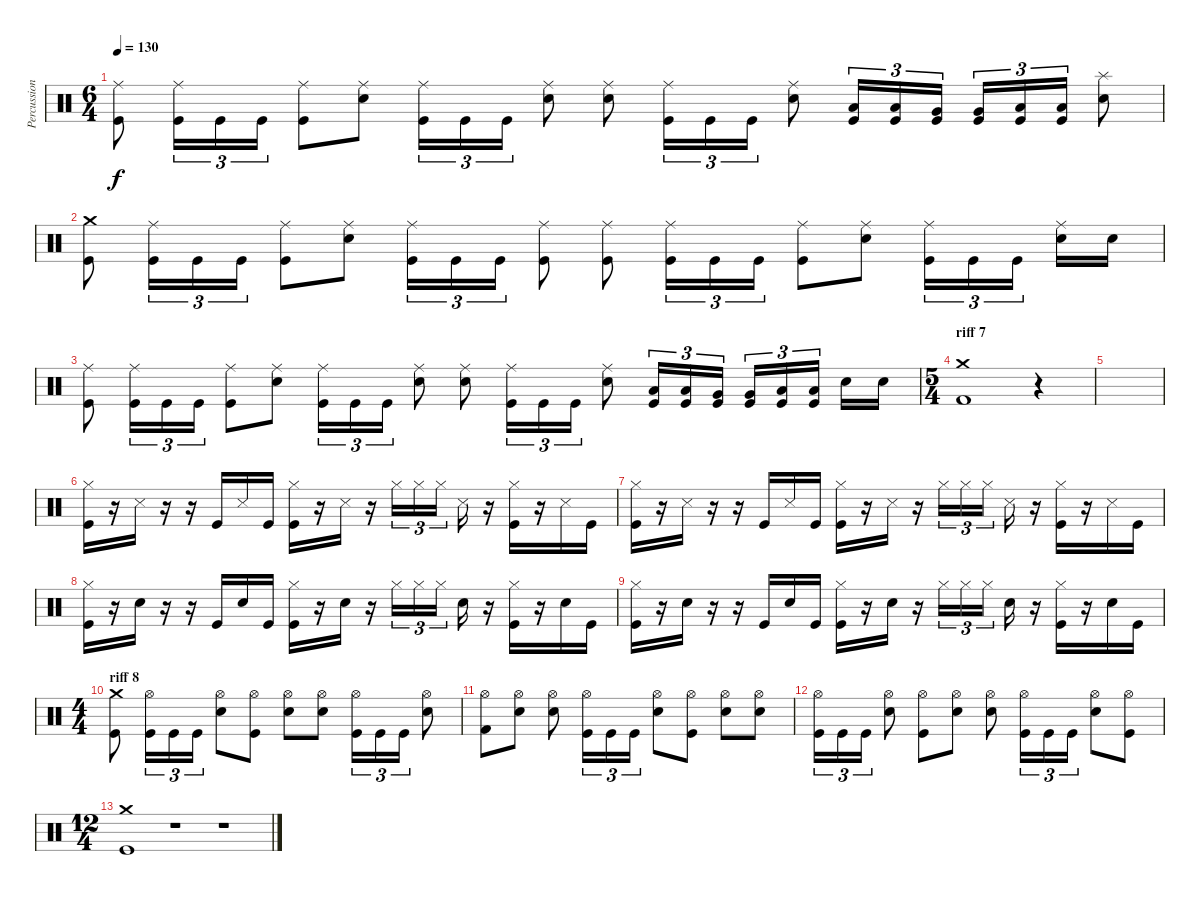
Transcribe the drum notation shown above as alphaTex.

\track ("Percussion" "Percussion") {instrument percussion}
\staff {score}
\articulation defaults
\ts (6 4)
\tempo 130
\clef neutral
\ks c
("Kick (hit)" "Ride (middle)").8{dy f} ("Kick (hit)" "Ride (middle)").16{tu (3 2)} "Kick (hit)".16{tu (3 2)} "Kick (hit)".16{tu (3 2)} ("Kick (hit)" "Ride (middle)").8 ("Ride (middle)" "Electric Snare (hit)").8 ("Kick (hit)" "Ride (middle)").16{tu (3 2)} "Kick (hit)".16{tu (3 2)} "Kick (hit)".16{tu (3 2)} ("Ride (middle)" "Electric Snare (hit)").8 ("Ride (middle)" "Electric Snare (hit)").8 ("Kick (hit)" "Ride (middle)").16{tu (3 2)} "Kick (hit)".16{tu (3 2)} "Kick (hit)".16{tu (3 2)} ("Ride (middle)" "Electric Snare (hit)").8 ("Kick (hit)" "Low Tom (hit)").16{tu (3 2)} ("Kick (hit)" "Low Tom (hit)").16{tu (3 2)} ("Kick (hit)" "Very Low Tom (hit)").16{tu (3 2)} ("Kick (hit)" "Very Low Tom (hit)").16{tu (3 2)} ("Kick (hit)" "Low Floor Tom (hit)").16{tu (3 2)} ("Kick (hit)" "Low Floor Tom (hit)").16{tu (3 2)} ("Electric Snare (hit)" "Splash (hit)").8 |
("Kick (hit)" "Crash medium (hit)").8 ("Kick (hit)" "Ride (middle)").16{tu (3 2)} "Kick (hit)".16{tu (3 2)} "Kick (hit)".16{tu (3 2)} ("Kick (hit)" "Ride (middle)").8 ("Ride (middle)" "Electric Snare (hit)").8 ("Kick (hit)" "Ride (middle)").16{tu (3 2)} "Kick (hit)".16{tu (3 2)} "Kick (hit)".16{tu (3 2)} ("Kick (hit)" "Ride (middle)").8 ("Kick (hit)" "Ride (middle)").8 ("Kick (hit)" "Ride (middle)").16{tu (3 2)} "Kick (hit)".16{tu (3 2)} "Kick (hit)".16{tu (3 2)} ("Kick (hit)" "Ride (middle)").8 ("Ride (middle)" "Electric Snare (hit)").8 ("Kick (hit)" "Ride (middle)").16{tu (3 2)} "Kick (hit)".16{tu (3 2)} "Kick (hit)".16{tu (3 2)} ("Ride (middle)" "Electric Snare (hit)").16 "Electric Snare (hit)".16 |
("Kick (hit)" "Ride (middle)").8 ("Kick (hit)" "Ride (middle)").16{tu (3 2)} "Kick (hit)".16{tu (3 2)} "Kick (hit)".16{tu (3 2)} ("Kick (hit)" "Ride (middle)").8 ("Ride (middle)" "Electric Snare (hit)").8 ("Kick (hit)" "Ride (middle)").16{tu (3 2)} "Kick (hit)".16{tu (3 2)} "Kick (hit)".16{tu (3 2)} ("Ride (middle)" "Electric Snare (hit)").8 ("Ride (middle)" "Electric Snare (hit)").8 ("Kick (hit)" "Ride (middle)").16{tu (3 2)} "Kick (hit)".16{tu (3 2)} "Kick (hit)".16{tu (3 2)} ("Ride (middle)" "Electric Snare (hit)").8 ("Kick (hit)" "Low Tom (hit)").16{tu (3 2)} ("Kick (hit)" "Low Tom (hit)").16{tu (3 2)} ("Kick (hit)" "Very Low Tom (hit)").16{tu (3 2)} ("Kick (hit)" "Very Low Tom (hit)").16{tu (3 2)} ("Kick (hit)" "Low Floor Tom (hit)").16{tu (3 2)} ("Kick (hit)" "Low Floor Tom (hit)").16{tu (3 2)} "Electric Snare (hit)".16 "Electric Snare (hit)".16 |
\ts (5 4)
\section ("" "riff 7")
("Kick (hit) 2" "Crash medium (hit)").1 r.4 |
|
("Kick (hit)" "Hi-Hat (closed)").16 r.16 "Snare (side stick) 3".16 r.16 r.16 "Kick (hit)".16 "Snare (side stick) 3".16 "Kick (hit)".16 ("Kick (hit)" "Hi-Hat (closed)").16 r.16 "Snare (side stick) 3".16 r.16 "Hi-Hat (closed)".16{tu (3 2)} "Hi-Hat (closed)".16{tu (3 2)} "Hi-Hat (closed)".16{tu (3 2)} "Snare (side stick) 3".16 r.16 ("Kick (hit)" "Hi-Hat (closed)").16 r.16 "Snare (side stick) 3".16 "Kick (hit)".16 |
("Kick (hit)" "Hi-Hat (closed)").16 r.16 "Snare (side stick) 3".16 r.16 r.16 "Kick (hit)".16 "Snare (side stick) 3".16 "Kick (hit)".16 ("Kick (hit)" "Hi-Hat (closed)").16 r.16 "Snare (side stick) 3".16 r.16 "Hi-Hat (closed)".16{tu (3 2)} "Hi-Hat (closed)".16{tu (3 2)} "Hi-Hat (closed)".16{tu (3 2)} "Snare (side stick) 3".16 r.16 ("Kick (hit)" "Hi-Hat (closed)").16 r.16 "Snare (side stick) 3".16 "Kick (hit)".16 |
("Kick (hit)" "Hi-Hat (closed)").16 r.16 "Electric Snare (hit)".16 r.16 r.16 "Kick (hit)".16 "Electric Snare (hit)".16 "Kick (hit)".16 ("Kick (hit)" "Hi-Hat (closed)").16 r.16 "Electric Snare (hit)".16 r.16 "Hi-Hat (closed)".16{tu (3 2)} "Hi-Hat (closed)".16{tu (3 2)} "Hi-Hat (closed)".16{tu (3 2)} "Electric Snare (hit)".16 r.16 ("Kick (hit)" "Hi-Hat (closed)").16 r.16 "Electric Snare (hit)".16 "Kick (hit)".16 |
("Kick (hit)" "Hi-Hat (closed)").16 r.16 "Electric Snare (hit)".16 r.16 r.16 "Kick (hit)".16 "Electric Snare (hit)".16 "Kick (hit)".16 ("Kick (hit)" "Hi-Hat (closed)").16 r.16 "Electric Snare (hit)".16 r.16 "Hi-Hat (closed)".16{tu (3 2)} "Hi-Hat (closed)".16{tu (3 2)} "Hi-Hat (closed)".16{tu (3 2)} "Electric Snare (hit)".16 r.16 ("Kick (hit)" "Hi-Hat (closed)").16 r.16 "Electric Snare (hit)".16 "Kick (hit)".16 |
\ts (4 4)
\section ("" "riff 8")
("Kick (hit)" "Crash medium (hit)").8 ("Kick (hit)" "Hi-Hat (open)").16{tu (3 2)} "Kick (hit)".16{tu (3 2)} "Kick (hit)".16{tu (3 2)} ("Hi-Hat (open)" "Electric Snare (hit)").8 ("Kick (hit)" "Hi-Hat (open)").8 ("Hi-Hat (open)" "Electric Snare (hit)").8 ("Hi-Hat (open)" "Electric Snare (hit)").8 ("Kick (hit)" "Hi-Hat (open)").16{tu (3 2)} "Kick (hit)".16{tu (3 2)} "Kick (hit)".16{tu (3 2)} ("Hi-Hat (open)" "Electric Snare (hit)").8 |
("Kick (hit) 2" "Hi-Hat (open)").8 ("Hi-Hat (open)" "Electric Snare (hit)").8 ("Hi-Hat (open)" "Electric Snare (hit)").8 ("Kick (hit)" "Hi-Hat (open)").16{tu (3 2)} "Kick (hit)".16{tu (3 2)} "Kick (hit)".16{tu (3 2)} ("Hi-Hat (open)" "Electric Snare (hit)").8 ("Kick (hit)" "Hi-Hat (open)").8 ("Hi-Hat (open)" "Electric Snare (hit)").8 ("Hi-Hat (open)" "Electric Snare (hit)").8 |
("Kick (hit)" "Hi-Hat (open)").16{tu (3 2)} "Kick (hit)".16{tu (3 2)} "Kick (hit)".16{tu (3 2)} ("Hi-Hat (open)" "Electric Snare (hit)").8 ("Kick (hit)" "Hi-Hat (open)").8 ("Hi-Hat (open)" "Electric Snare (hit)").8 ("Hi-Hat (open)" "Electric Snare (hit)").8 ("Kick (hit)" "Hi-Hat (open)").16{tu (3 2)} "Kick (hit)".16{tu (3 2)} "Kick (hit)".16{tu (3 2)} ("Hi-Hat (open)" "Electric Snare (hit)").8 ("Kick (hit)" "Hi-Hat (open)").8 |
\ts (12 4)
("Kick (hit)" "Crash medium (hit)").1 r.1 r.1
